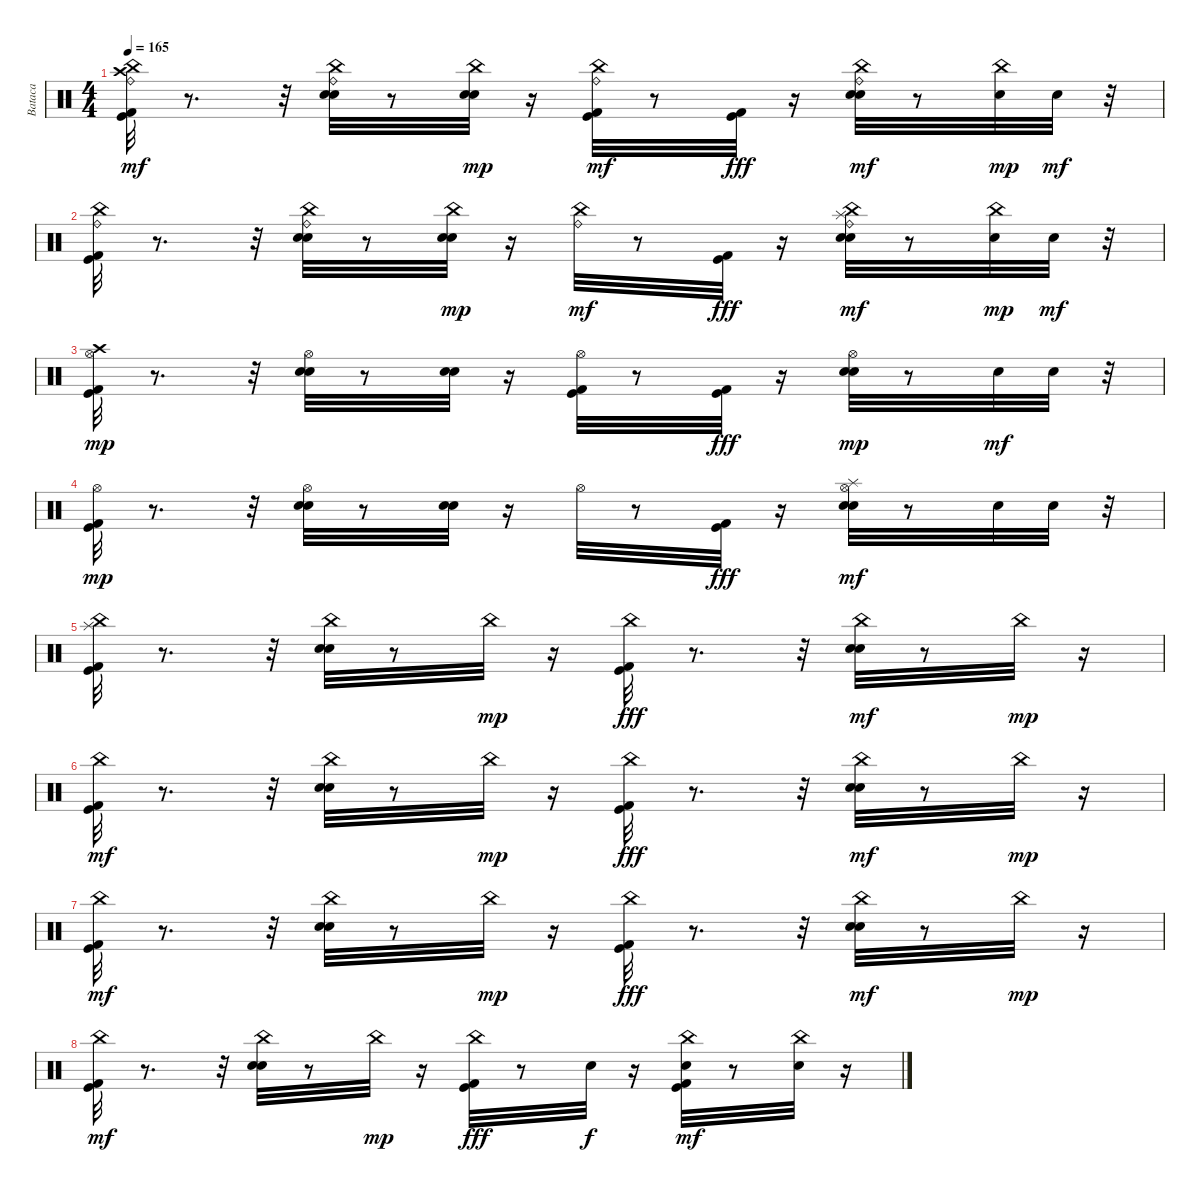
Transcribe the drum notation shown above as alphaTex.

\track ("Bataca" "Bataca") {instrument percussion}
\staff {score}
\articulation defaults
\ts (4 4)
\tempo 165
\clef neutral
\ks c
("Kick (hit) 2" "Kick (hit)" "China (hit)" "Ride (bell)" "Crash high (hit)").32{dy mf} r.8{d} r.32 ("Snare (hit) 2" "Hand Clap (hit)" "China (hit)" "Ride (bell)").32 r.8 ("Snare (hit) 2" "Hand Clap (hit)" "China (hit)").32{dy mp} r.16 ("Kick (hit) 2" "Kick (hit)" "China (hit)" "Ride (bell)").32{dy mf} r.8 ("Kick (hit) 2" "Kick (hit)").32{dy fff} r.16 ("Snare (hit) 2" "Hand Clap (hit)" "China (hit)" "Ride (bell)").32{dy mf} r.8 ("Snare (hit) 2" "China (hit)").32{dy mp} "Hand Clap (hit)".32{dy mf} r.32 |
("Kick (hit) 2" "Kick (hit)" "China (hit)" "Ride (bell)").32 r.8{d} r.32 ("Snare (hit) 2" "Hand Clap (hit)" "China (hit)" "Ride (bell)").32 r.8 ("Snare (hit) 2" "Hand Clap (hit)" "China (hit)").32{dy mp} r.16 ("China (hit)" "Ride (bell)").32{dy mf} r.8 ("Kick (hit) 2" "Kick (hit)").32{dy fff} r.16 ("Snare (hit) 2" "Hand Clap (hit)" "China (hit)" "Ride (bell)" "Splash (hit)").32{dy mf} r.8 ("Snare (hit) 2" "China (hit)").32{dy mp} "Hand Clap (hit)".32{dy mf} r.32 |
("Kick (hit) 2" "Kick (hit)" "Crash high (hit)" "Hi-Hat (open)").32{dy mp} r.8{d} r.32 ("Snare (hit) 2" "Hand Clap (hit)" "Hi-Hat (open)").32 r.8 ("Snare (hit) 2" "Hand Clap (hit)").32 r.16 ("Kick (hit) 2" "Kick (hit)" "Hi-Hat (open)").32 r.8 ("Kick (hit) 2" "Kick (hit)").32{dy fff} r.16 ("Snare (hit) 2" "Hand Clap (hit)" "Hi-Hat (open)").32{dy mp} r.8 "Snare (hit) 2".32{dy mf} "Hand Clap (hit)".32 r.32 |
("Kick (hit) 2" "Kick (hit)" "Hi-Hat (open)").32{dy mp} r.8{d} r.32 ("Snare (hit) 2" "Hand Clap (hit)" "Hi-Hat (open)").32 r.8 ("Snare (hit) 2" "Hand Clap (hit)").32 r.16 "Hi-Hat (open)".32 r.8 ("Kick (hit) 2" "Kick (hit)").32{dy fff} r.16 ("Snare (hit) 2" "Hand Clap (hit)" "Hi-Hat (open)" "Splash (hit)").32{dy mf} r.8 "Snare (hit) 2".32 "Hand Clap (hit)".32 r.32 |
("Kick (hit) 2" "Kick (hit)" "Splash (hit)" "China (hit)").32 r.8{d} r.32 ("Snare (hit) 2" "China (hit)" "Hand Clap (hit)").32 r.8 "China (hit)".32{dy mp} r.16 ("China (hit)" "Kick (hit) 2" "Kick (hit)").32{dy fff} r.8{d} r.32 ("Snare (hit) 2" "China (hit)" "Hand Clap (hit)").32{dy mf} r.8 "China (hit)".32{dy mp} r.16 |
("Kick (hit) 2" "Kick (hit)" "China (hit)").32{dy mf} r.8{d} r.32 ("Snare (hit) 2" "China (hit)" "Hand Clap (hit)").32 r.8 "China (hit)".32{dy mp} r.16 ("China (hit)" "Kick (hit) 2" "Kick (hit)").32{dy fff} r.8{d} r.32 ("Snare (hit) 2" "China (hit)" "Hand Clap (hit)").32{dy mf} r.8 "China (hit)".32{dy mp} r.16 |
("Kick (hit) 2" "Kick (hit)" "China (hit)").32{dy mf} r.8{d} r.32 ("Snare (hit) 2" "China (hit)" "Hand Clap (hit)").32 r.8 "China (hit)".32{dy mp} r.16 ("China (hit)" "Kick (hit) 2" "Kick (hit)").32{dy fff} r.8{d} r.32 ("Snare (hit) 2" "China (hit)" "Hand Clap (hit)").32{dy mf} r.8 "China (hit)".32{dy mp} r.16 |
("Kick (hit) 2" "Kick (hit)" "China (hit)").32{dy mf} r.8{d} r.32 ("Snare (hit) 2" "China (hit)" "Hand Clap (hit)").32 r.8 "China (hit)".32{dy mp} r.16 ("China (hit)" "Kick (hit) 2" "Kick (hit)").32{dy fff} r.8 "Snare (hit) 2".32{dy f} r.16 ("China (hit)" "Kick (hit) 2" "Kick (hit)" "Hand Clap (hit)").32{dy mf} r.8 ("China (hit)" "Snare (hit) 2").32 r.16
